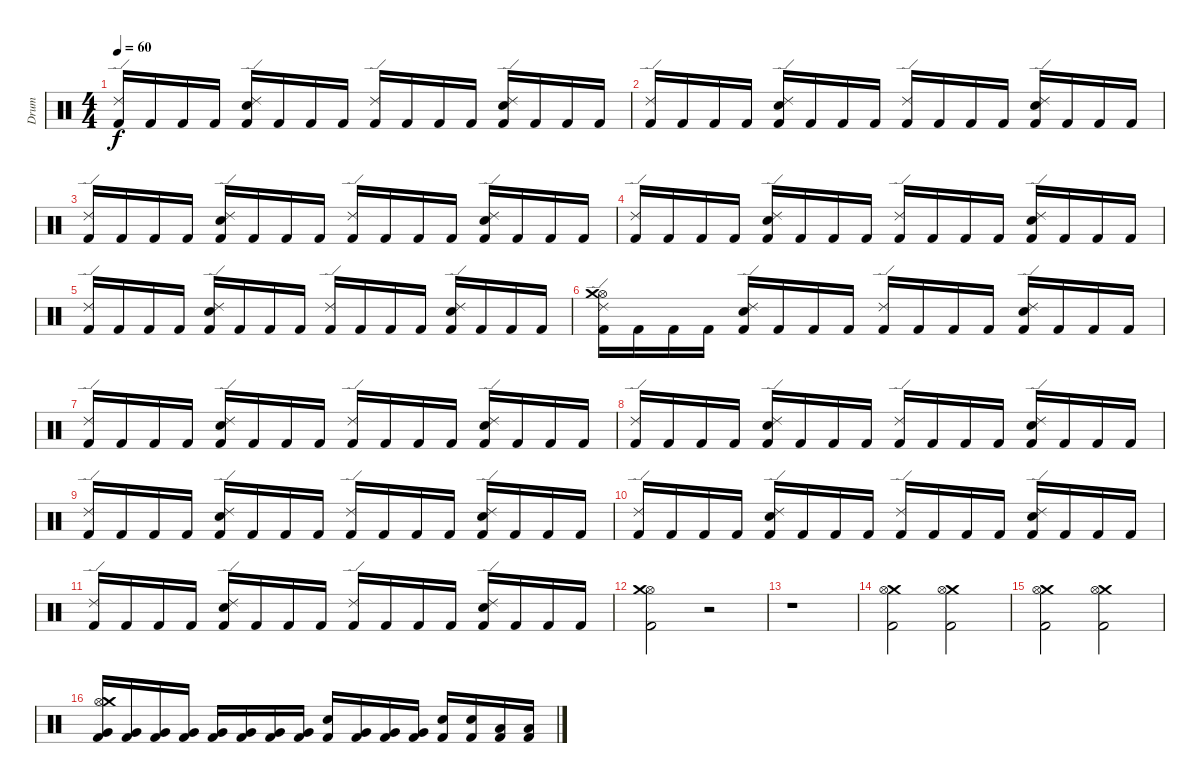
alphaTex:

\track ("Drum" "Drum") {instrument percussion}
\staff {score}
\articulation defaults
\ts (4 4)
\tempo 60
\clef neutral
\ks c
("Ride (edge) 2" "Kick (hit) 2").16{dy f} "Kick (hit) 2".16 "Kick (hit) 2".16 "Kick (hit) 2".16 ("Electric Snare (hit)" "Ride (edge) 2" "Kick (hit) 2").16 "Kick (hit) 2".16 "Kick (hit) 2".16 "Kick (hit) 2".16 ("Ride (edge) 2" "Kick (hit) 2").16 "Kick (hit) 2".16 "Kick (hit) 2".16 "Kick (hit) 2".16 ("Electric Snare (hit)" "Ride (edge) 2" "Kick (hit) 2").16 "Kick (hit) 2".16 "Kick (hit) 2".16 "Kick (hit) 2".16 |
("Ride (edge) 2" "Kick (hit) 2").16 "Kick (hit) 2".16 "Kick (hit) 2".16 "Kick (hit) 2".16 ("Electric Snare (hit)" "Ride (edge) 2" "Kick (hit) 2").16 "Kick (hit) 2".16 "Kick (hit) 2".16 "Kick (hit) 2".16 ("Ride (edge) 2" "Kick (hit) 2").16 "Kick (hit) 2".16 "Kick (hit) 2".16 "Kick (hit) 2".16 ("Electric Snare (hit)" "Ride (edge) 2" "Kick (hit) 2").16 "Kick (hit) 2".16 "Kick (hit) 2".16 "Kick (hit) 2".16 |
("Ride (edge) 2" "Kick (hit) 2").16 "Kick (hit) 2".16 "Kick (hit) 2".16 "Kick (hit) 2".16 ("Electric Snare (hit)" "Ride (edge) 2" "Kick (hit) 2").16 "Kick (hit) 2".16 "Kick (hit) 2".16 "Kick (hit) 2".16 ("Ride (edge) 2" "Kick (hit) 2").16 "Kick (hit) 2".16 "Kick (hit) 2".16 "Kick (hit) 2".16 ("Electric Snare (hit)" "Ride (edge) 2" "Kick (hit) 2").16 "Kick (hit) 2".16 "Kick (hit) 2".16 "Kick (hit) 2".16 |
("Ride (edge) 2" "Kick (hit) 2").16 "Kick (hit) 2".16 "Kick (hit) 2".16 "Kick (hit) 2".16 ("Electric Snare (hit)" "Ride (edge) 2" "Kick (hit) 2").16 "Kick (hit) 2".16 "Kick (hit) 2".16 "Kick (hit) 2".16 ("Ride (edge) 2" "Kick (hit) 2").16 "Kick (hit) 2".16 "Kick (hit) 2".16 "Kick (hit) 2".16 ("Electric Snare (hit)" "Ride (edge) 2" "Kick (hit) 2").16 "Kick (hit) 2".16 "Kick (hit) 2".16 "Kick (hit) 2".16 |
("Ride (edge) 2" "Kick (hit) 2").16 "Kick (hit) 2".16 "Kick (hit) 2".16 "Kick (hit) 2".16 ("Electric Snare (hit)" "Ride (edge) 2" "Kick (hit) 2").16 "Kick (hit) 2".16 "Kick (hit) 2".16 "Kick (hit) 2".16 ("Ride (edge) 2" "Kick (hit) 2").16 "Kick (hit) 2".16 "Kick (hit) 2".16 "Kick (hit) 2".16 ("Electric Snare (hit)" "Ride (edge) 2" "Kick (hit) 2").16 "Kick (hit) 2".16 "Kick (hit) 2".16 "Kick (hit) 2".16 |
("Hi-Hat (open)" "Crash medium (hit)" "Ride (edge) 2" "Kick (hit) 2").16 "Kick (hit) 2".16 "Kick (hit) 2".16 "Kick (hit) 2".16 ("Electric Snare (hit)" "Ride (edge) 2" "Kick (hit) 2").16 "Kick (hit) 2".16 "Kick (hit) 2".16 "Kick (hit) 2".16 ("Ride (edge) 2" "Kick (hit) 2").16 "Kick (hit) 2".16 "Kick (hit) 2".16 "Kick (hit) 2".16 ("Electric Snare (hit)" "Ride (edge) 2" "Kick (hit) 2").16 "Kick (hit) 2".16 "Kick (hit) 2".16 "Kick (hit) 2".16 |
("Ride (edge) 2" "Kick (hit) 2").16 "Kick (hit) 2".16 "Kick (hit) 2".16 "Kick (hit) 2".16 ("Electric Snare (hit)" "Ride (edge) 2" "Kick (hit) 2").16 "Kick (hit) 2".16 "Kick (hit) 2".16 "Kick (hit) 2".16 ("Ride (edge) 2" "Kick (hit) 2").16 "Kick (hit) 2".16 "Kick (hit) 2".16 "Kick (hit) 2".16 ("Electric Snare (hit)" "Ride (edge) 2" "Kick (hit) 2").16 "Kick (hit) 2".16 "Kick (hit) 2".16 "Kick (hit) 2".16 |
("Ride (edge) 2" "Kick (hit) 2").16 "Kick (hit) 2".16 "Kick (hit) 2".16 "Kick (hit) 2".16 ("Electric Snare (hit)" "Ride (edge) 2" "Kick (hit) 2").16 "Kick (hit) 2".16 "Kick (hit) 2".16 "Kick (hit) 2".16 ("Ride (edge) 2" "Kick (hit) 2").16 "Kick (hit) 2".16 "Kick (hit) 2".16 "Kick (hit) 2".16 ("Electric Snare (hit)" "Ride (edge) 2" "Kick (hit) 2").16 "Kick (hit) 2".16 "Kick (hit) 2".16 "Kick (hit) 2".16 |
("Ride (edge) 2" "Kick (hit) 2").16 "Kick (hit) 2".16 "Kick (hit) 2".16 "Kick (hit) 2".16 ("Electric Snare (hit)" "Ride (edge) 2" "Kick (hit) 2").16 "Kick (hit) 2".16 "Kick (hit) 2".16 "Kick (hit) 2".16 ("Ride (edge) 2" "Kick (hit) 2").16 "Kick (hit) 2".16 "Kick (hit) 2".16 "Kick (hit) 2".16 ("Electric Snare (hit)" "Ride (edge) 2" "Kick (hit) 2").16 "Kick (hit) 2".16 "Kick (hit) 2".16 "Kick (hit) 2".16 |
("Ride (edge) 2" "Kick (hit) 2").16 "Kick (hit) 2".16 "Kick (hit) 2".16 "Kick (hit) 2".16 ("Electric Snare (hit)" "Ride (edge) 2" "Kick (hit) 2").16 "Kick (hit) 2".16 "Kick (hit) 2".16 "Kick (hit) 2".16 ("Ride (edge) 2" "Kick (hit) 2").16 "Kick (hit) 2".16 "Kick (hit) 2".16 "Kick (hit) 2".16 ("Electric Snare (hit)" "Ride (edge) 2" "Kick (hit) 2").16 "Kick (hit) 2".16 "Kick (hit) 2".16 "Kick (hit) 2".16 |
("Ride (edge) 2" "Kick (hit) 2").16 "Kick (hit) 2".16 "Kick (hit) 2".16 "Kick (hit) 2".16 ("Electric Snare (hit)" "Ride (edge) 2" "Kick (hit) 2").16 "Kick (hit) 2".16 "Kick (hit) 2".16 "Kick (hit) 2".16 ("Ride (edge) 2" "Kick (hit) 2").16 "Kick (hit) 2".16 "Kick (hit) 2".16 "Kick (hit) 2".16 ("Electric Snare (hit)" "Ride (edge) 2" "Kick (hit) 2").16 "Kick (hit) 2".16 "Kick (hit) 2".16 "Kick (hit) 2".16 |
("Hi-Hat (open)" "Crash medium (hit)" "Kick (hit) 2").2 r.2 |
r.1 |
("Crash medium (hit)" "Hi-Hat (open)" "Kick (hit) 2").2 ("Crash medium (hit)" "Hi-Hat (open)" "Kick (hit) 2").2 |
("Crash medium (hit)" "Hi-Hat (open)" "Kick (hit) 2").2 ("Crash medium (hit)" "Hi-Hat (open)" "Kick (hit) 2").2 |
("Very Low Tom (hit)" "Hi-Hat (open)" "Crash medium (hit)" "Kick (hit) 2").16 ("Very Low Tom (hit)" "Kick (hit) 2").16 ("Very Low Tom (hit)" "Kick (hit) 2").16 ("Very Low Tom (hit)" "Kick (hit) 2").16 ("Very Low Tom (hit)" "Kick (hit) 2").16 ("Very Low Tom (hit)" "Kick (hit) 2").16 ("Very Low Tom (hit)" "Kick (hit) 2").16 ("Very Low Tom (hit)" "Kick (hit) 2").16 ("Electric Snare (hit)" "Kick (hit) 2").16 ("Very Low Tom (hit)" "Kick (hit) 2").16 ("Very Low Tom (hit)" "Kick (hit) 2").16 ("Very Low Tom (hit)" "Kick (hit) 2").16 ("Electric Snare (hit)" "Kick (hit) 2").16 ("Electric Snare (hit)" "Kick (hit) 2").16 ("Low Tom (hit)" "Kick (hit) 2").16 ("Low Tom (hit)" "Kick (hit) 2").16
